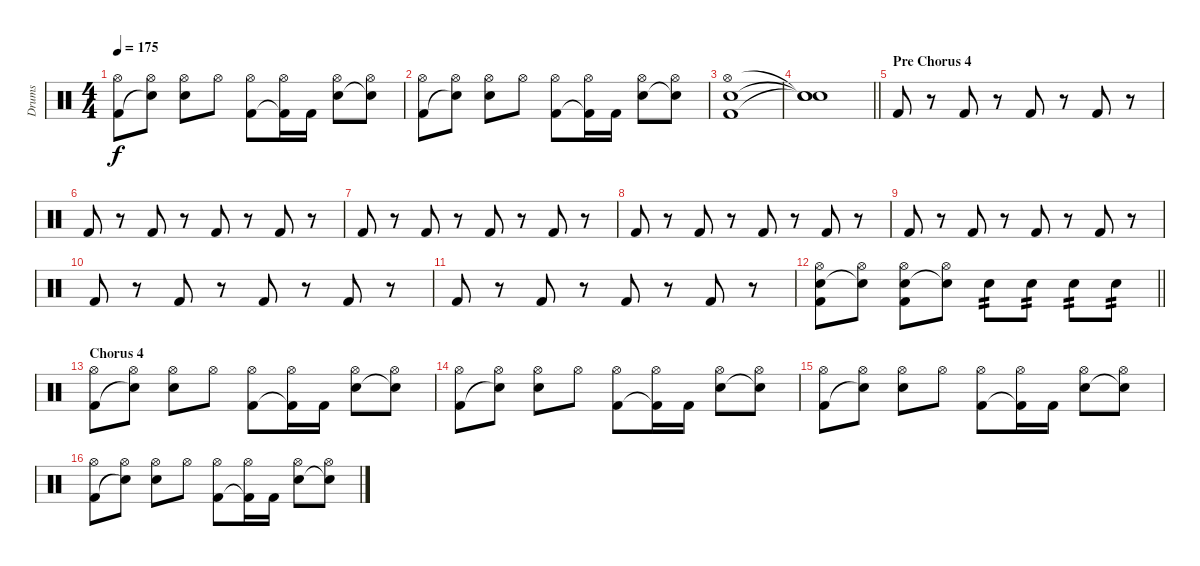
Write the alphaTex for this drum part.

\track ("Drums" "Drums") {instrument percussion}
\staff {score}
\articulation defaults
\ts (4 4)
\tempo 175
\clef neutral
\ks c
("Hi-Hat (open)" "Kick (hit) 2").8{dy f} ("Hi-Hat (open)" "Snare (hit)"{t}).8 ("Hi-Hat (open)" "Electric Snare (hit)").8 "Hi-Hat (open)".8 ("Hi-Hat (open)" "Kick (hit) 2").8 ("Hi-Hat (open)" "Kick (hit) 2"{t}).16 "Kick (hit) 2".16 ("Hi-Hat (open)" "Electric Snare (hit)").8 ("Hi-Hat (open)" "Snare (hit)"{t}).8 |
("Hi-Hat (open)" "Kick (hit) 2").8 ("Hi-Hat (open)" "Snare (hit)"{t}).8 ("Hi-Hat (open)" "Electric Snare (hit)").8 "Hi-Hat (open)".8 ("Hi-Hat (open)" "Kick (hit) 2").8 ("Hi-Hat (open)" "Kick (hit) 2"{t}).16 "Kick (hit) 2".16 ("Hi-Hat (open)" "Electric Snare (hit)").8 ("Hi-Hat (open)" "Snare (hit)"{t}).8 |
("Hi-Hat (open)" "Electric Snare (hit)" "Kick (hit) 2").1 |
\barLineRight lightlight
("Snare (hit)"{t} "Snare (hit)"{t} "Snare (hit)"{t}).1 |
\section ("" "Pre Chorus 4")
"Kick (hit) 2".8 r.8 "Kick (hit) 2".8 r.8 "Kick (hit) 2".8 r.8 "Kick (hit) 2".8 r.8 |
"Kick (hit) 2".8 r.8 "Kick (hit) 2".8 r.8 "Kick (hit) 2".8 r.8 "Kick (hit) 2".8 r.8 |
"Kick (hit) 2".8 r.8 "Kick (hit) 2".8 r.8 "Kick (hit) 2".8 r.8 "Kick (hit) 2".8 r.8 |
"Kick (hit) 2".8 r.8 "Kick (hit) 2".8 r.8 "Kick (hit) 2".8 r.8 "Kick (hit) 2".8 r.8 |
"Kick (hit) 2".8 r.8 "Kick (hit) 2".8 r.8 "Kick (hit) 2".8 r.8 "Kick (hit) 2".8 r.8 |
"Kick (hit) 2".8 r.8 "Kick (hit) 2".8 r.8 "Kick (hit) 2".8 r.8 "Kick (hit) 2".8 r.8 |
"Kick (hit) 2".8 r.8 "Kick (hit) 2".8 r.8 "Kick (hit) 2".8 r.8 "Kick (hit) 2".8 r.8 |
\barLineRight lightlight
("Hi-Hat (open)" "Electric Snare (hit)" "Kick (hit) 2").8 ("Hi-Hat (open)" "Snare (hit)"{t}).8 ("Hi-Hat (open)" "Electric Snare (hit)" "Kick (hit) 2").8 ("Hi-Hat (open)" "Snare (hit)"{t}).8 "Electric Snare (hit)".8{tp 2} "Electric Snare (hit)".8{tp 2} "Electric Snare (hit)".8{tp 2} "Electric Snare (hit)".8{tp 2} |
\section ("" "Chorus 4")
("Hi-Hat (open)" "Kick (hit) 2").8 ("Hi-Hat (open)" "Snare (hit)"{t}).8 ("Hi-Hat (open)" "Electric Snare (hit)").8 "Hi-Hat (open)".8 ("Hi-Hat (open)" "Kick (hit) 2").8 ("Hi-Hat (open)" "Kick (hit) 2"{t}).16 "Kick (hit) 2".16 ("Hi-Hat (open)" "Electric Snare (hit)").8 ("Hi-Hat (open)" "Snare (hit)"{t}).8 |
("Hi-Hat (open)" "Kick (hit) 2").8 ("Hi-Hat (open)" "Snare (hit)"{t}).8 ("Hi-Hat (open)" "Electric Snare (hit)").8 "Hi-Hat (open)".8 ("Hi-Hat (open)" "Kick (hit) 2").8 ("Hi-Hat (open)" "Kick (hit) 2"{t}).16 "Kick (hit) 2".16 ("Hi-Hat (open)" "Electric Snare (hit)").8 ("Hi-Hat (open)" "Snare (hit)"{t}).8 |
("Hi-Hat (open)" "Kick (hit) 2").8 ("Hi-Hat (open)" "Snare (hit)"{t}).8 ("Hi-Hat (open)" "Electric Snare (hit)").8 "Hi-Hat (open)".8 ("Hi-Hat (open)" "Kick (hit) 2").8 ("Hi-Hat (open)" "Kick (hit) 2"{t}).16 "Kick (hit) 2".16 ("Hi-Hat (open)" "Electric Snare (hit)").8 ("Hi-Hat (open)" "Snare (hit)"{t}).8 |
("Hi-Hat (open)" "Kick (hit) 2").8 ("Hi-Hat (open)" "Snare (hit)"{t}).8 ("Hi-Hat (open)" "Electric Snare (hit)").8 "Hi-Hat (open)".8 ("Hi-Hat (open)" "Kick (hit) 2").8 ("Hi-Hat (open)" "Kick (hit) 2"{t}).16 "Kick (hit) 2".16 ("Hi-Hat (open)" "Electric Snare (hit)").8 ("Hi-Hat (open)" "Snare (hit)"{t}).8
